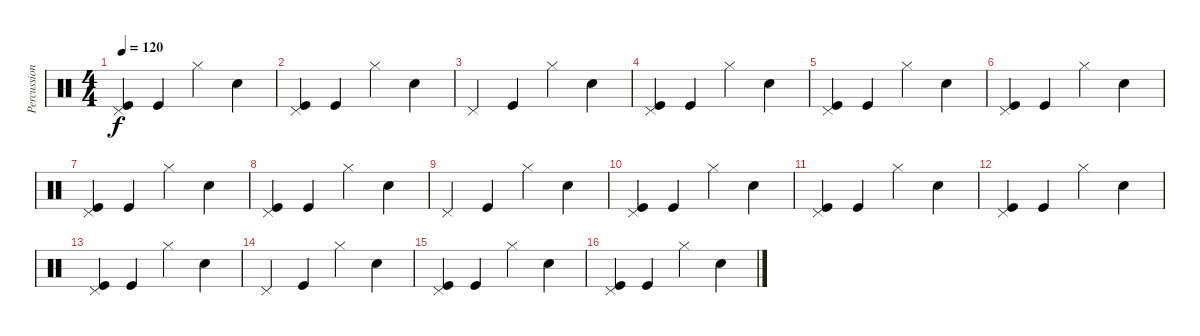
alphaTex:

\track ("Percussion" "Percussion") {instrument percussion}
\staff {score}
\articulation defaults
\ts (4 4)
\tempo 120
\clef neutral
\ks c
("Pedal Hi-Hat (hit)" "Kick (hit)").4{dy f} "Kick (hit)".4 "Hi-Hat (closed)".4 "Snare (hit) 2".4 |
("Pedal Hi-Hat (hit)" "Kick (hit)").4 "Kick (hit)".4 "Hi-Hat (closed)".4 "Snare (hit) 2".4 |
"Pedal Hi-Hat (hit)".4 "Kick (hit)".4 "Hi-Hat (closed)".4 "Snare (hit) 2".4 |
("Pedal Hi-Hat (hit)" "Kick (hit)").4 "Kick (hit)".4 "Hi-Hat (closed)".4 "Snare (hit) 2".4 |
("Pedal Hi-Hat (hit)" "Kick (hit)").4 "Kick (hit)".4 "Hi-Hat (closed)".4 "Snare (hit) 2".4 |
("Pedal Hi-Hat (hit)" "Kick (hit)").4 "Kick (hit)".4 "Hi-Hat (closed)".4 "Snare (hit) 2".4 |
("Pedal Hi-Hat (hit)" "Kick (hit)").4 "Kick (hit)".4 "Hi-Hat (closed)".4 "Snare (hit) 2".4 |
("Pedal Hi-Hat (hit)" "Kick (hit)").4 "Kick (hit)".4 "Hi-Hat (closed)".4 "Snare (hit) 2".4 |
"Pedal Hi-Hat (hit)".4 "Kick (hit)".4 "Hi-Hat (closed)".4 "Snare (hit) 2".4 |
("Pedal Hi-Hat (hit)" "Kick (hit)").4 "Kick (hit)".4 "Hi-Hat (closed)".4 "Snare (hit) 2".4 |
("Pedal Hi-Hat (hit)" "Kick (hit)").4 "Kick (hit)".4 "Hi-Hat (closed)".4 "Snare (hit) 2".4 |
("Pedal Hi-Hat (hit)" "Kick (hit)").4 "Kick (hit)".4 "Hi-Hat (closed)".4 "Snare (hit) 2".4 |
("Pedal Hi-Hat (hit)" "Kick (hit)").4 "Kick (hit)".4 "Hi-Hat (closed)".4 "Snare (hit) 2".4 |
"Pedal Hi-Hat (hit)".4 "Kick (hit)".4 "Hi-Hat (closed)".4 "Snare (hit) 2".4 |
("Pedal Hi-Hat (hit)" "Kick (hit)").4 "Kick (hit)".4 "Hi-Hat (closed)".4 "Snare (hit) 2".4 |
("Pedal Hi-Hat (hit)" "Kick (hit)").4 "Kick (hit)".4 "Hi-Hat (closed)".4 "Snare (hit) 2".4
